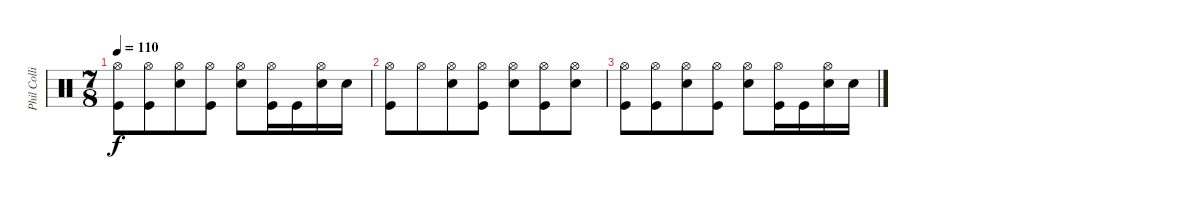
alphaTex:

\track ("Phil Collins" "Phil Colli") {instrument percussion}
\staff {score}
\articulation defaults
\ts (7 8)
\tempo 110
\clef neutral
\ks c
("Kick (hit)" "Hi-Hat (open)").8{dy f} ("Hi-Hat (open)" "Kick (hit)").8 ("Snare (hit) 2" "Hi-Hat (open)").8 ("Kick (hit)" "Hi-Hat (open)").8 ("Snare (hit) 2" "Hi-Hat (open)").8 ("Hi-Hat (open)" "Kick (hit)").16 "Kick (hit)".16 ("Snare (hit) 2" "Hi-Hat (open)").16 "Snare (hit) 2".16 |
("Kick (hit)" "Hi-Hat (open)").8{volume 0} "Hi-Hat (open)".8 ("Hi-Hat (open)" "Snare (hit) 2").8 ("Hi-Hat (open)" "Kick (hit)").8 ("Hi-Hat (open)" "Snare (hit) 2").8 ("Hi-Hat (open)" "Kick (hit)").8 ("Hi-Hat (open)" "Snare (hit) 2").8 |
("Kick (hit)" "Hi-Hat (open)").8 ("Hi-Hat (open)" "Kick (hit)").8 ("Snare (hit) 2" "Hi-Hat (open)").8 ("Kick (hit)" "Hi-Hat (open)").8 ("Snare (hit) 2" "Hi-Hat (open)").8 ("Hi-Hat (open)" "Kick (hit)").16 "Kick (hit)".16 ("Snare (hit) 2" "Hi-Hat (open)").16 "Snare (hit) 2".16
